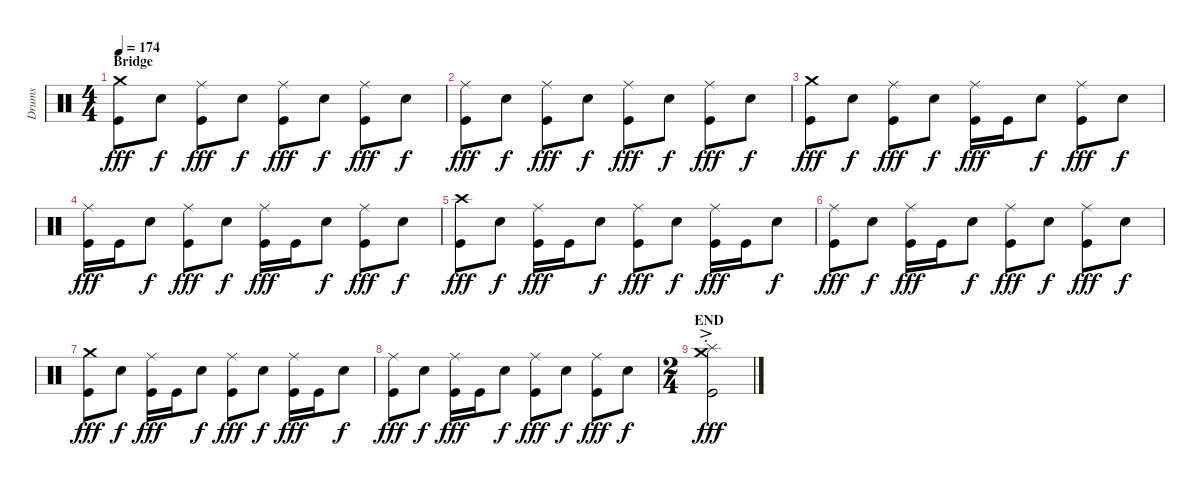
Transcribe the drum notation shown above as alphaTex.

\track ("Drums" "Drums") {instrument percussion}
\staff {score}
\articulation defaults
\ts (4 4)
\section ("" "Bridge")
\tempo 174
\clef neutral
\ks c
("Crash medium (hit)" "Kick (hit)").8{dy fff} "Snare (hit) 2".8{dy f} ("Ride (middle)" "Kick (hit)").8{dy fff} "Snare (hit) 2".8{dy f} ("Ride (middle)" "Kick (hit)").8{dy fff} "Snare (hit) 2".8{dy f} ("Ride (middle)" "Kick (hit)").8{dy fff} "Snare (hit) 2".8{dy f} |
("Ride (middle)" "Kick (hit)").8{dy fff} "Snare (hit) 2".8{dy f} ("Ride (middle)" "Kick (hit)").8{dy fff} "Snare (hit) 2".8{dy f} ("Ride (middle)" "Kick (hit)").8{dy fff} "Snare (hit) 2".8{dy f} ("Ride (middle)" "Kick (hit)").8{dy fff} "Snare (hit) 2".8{dy f} |
("Crash medium (hit)" "Kick (hit)").8{dy fff} "Snare (hit) 2".8{dy f} ("Ride (middle)" "Kick (hit)").8{dy fff} "Snare (hit) 2".8{dy f} ("Ride (middle)" "Kick (hit)").16{dy fff} "Kick (hit)".16 "Snare (hit) 2".8{dy f} ("Ride (middle)" "Kick (hit)").8{dy fff} "Snare (hit) 2".8{dy f} |
("Ride (middle)" "Kick (hit)").16{dy fff} "Kick (hit)".16 "Snare (hit) 2".8{dy f} ("Ride (middle)" "Kick (hit)").8{dy fff} "Snare (hit) 2".8{dy f} ("Ride (middle)" "Kick (hit)").16{dy fff} "Kick (hit)".16 "Snare (hit) 2".8{dy f} ("Ride (middle)" "Kick (hit)").8{dy fff} "Snare (hit) 2".8{dy f} |
("Crash high (hit)" "Kick (hit)").8{dy fff} "Snare (hit) 2".8{dy f} ("Ride (middle)" "Kick (hit)").16{dy fff} "Kick (hit)".16 "Snare (hit) 2".8{dy f} ("Ride (middle)" "Kick (hit)").8{dy fff} "Snare (hit) 2".8{dy f} ("Ride (middle)" "Kick (hit)").16{dy fff} "Kick (hit)".16 "Snare (hit) 2".8{dy f} |
("Ride (middle)" "Kick (hit)").8{dy fff} "Snare (hit) 2".8{dy f} ("Ride (middle)" "Kick (hit)").16{dy fff} "Kick (hit)".16 "Snare (hit) 2".8{dy f} ("Ride (middle)" "Kick (hit)").8{dy fff} "Snare (hit) 2".8{dy f} ("Ride (middle)" "Kick (hit)").8{dy fff} "Snare (hit) 2".8{dy f} |
("Crash medium (hit)" "Kick (hit)").8{dy fff} "Snare (hit) 2".8{dy f} ("Ride (middle)" "Kick (hit)").16{dy fff} "Kick (hit)".16 "Snare (hit) 2".8{dy f} ("Ride (middle)" "Kick (hit)").8{dy fff} "Snare (hit) 2".8{dy f} ("Ride (middle)" "Kick (hit)").16{dy fff} "Kick (hit)".16 "Snare (hit) 2".8{dy f} |
("Ride (middle)" "Kick (hit)").8{dy fff} "Snare (hit) 2".8{dy f} ("Ride (middle)" "Kick (hit)").16{dy fff} "Kick (hit)".16 "Snare (hit) 2".8{dy f} ("Ride (middle)" "Kick (hit)").8{dy fff} "Snare (hit) 2".8{dy f} ("Ride (middle)" "Kick (hit)").8{dy fff} "Snare (hit) 2".8{dy f} |
\ts (2 4)
\section ("" "END")
("Crash medium (hit)"{ac st} "Splash (hit)" "Kick (hit)").2{dy fff}
